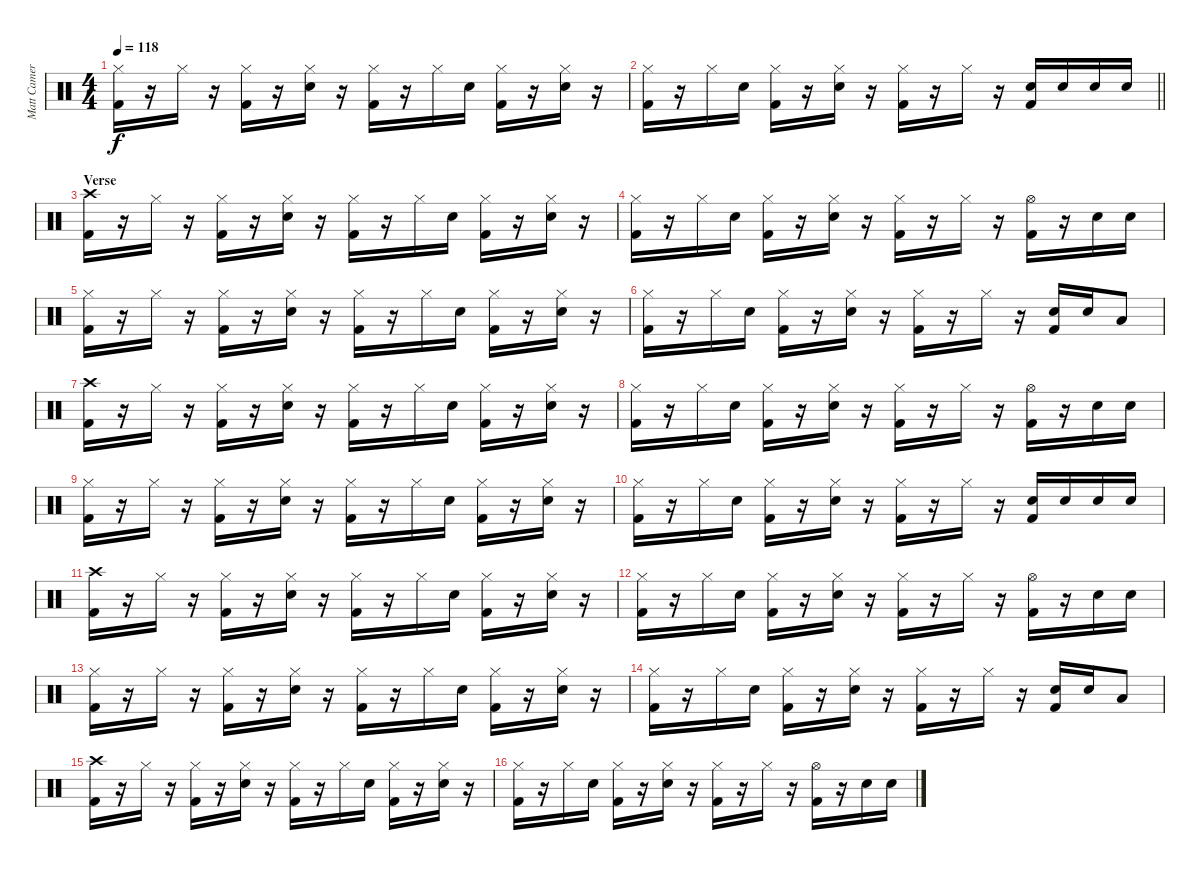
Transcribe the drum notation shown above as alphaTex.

\track ("Matt Cameron" "Matt Camer") {instrument percussion}
\staff {score}
\articulation defaults
\ts (4 4)
\tempo 118
\clef neutral
\ks c
("Hi-Hat (closed)" "Kick (hit) 2").16{dy f} r.16 "Hi-Hat (closed)".16 r.16 ("Hi-Hat (closed)" "Kick (hit) 2").16 r.16 ("Hi-Hat (closed)" "Snare (hit) 2").16 r.16 ("Hi-Hat (closed)" "Kick (hit) 2").16 r.16 "Hi-Hat (closed)".16 "Snare (hit) 2".16 ("Hi-Hat (closed)" "Kick (hit) 2").16 r.16 ("Hi-Hat (closed)" "Snare (hit) 2").16 r.16 |
\barLineRight lightlight
("Hi-Hat (closed)" "Kick (hit) 2").16 r.16 "Hi-Hat (closed)".16 "Snare (hit) 2".16 ("Hi-Hat (closed)" "Kick (hit) 2").16 r.16 ("Hi-Hat (closed)" "Snare (hit) 2").16 r.16 ("Hi-Hat (closed)" "Kick (hit) 2").16 r.16 "Hi-Hat (closed)".16 r.16 ("Snare (hit) 2" "Kick (hit) 2").16 "Snare (hit) 2".16 "Snare (hit) 2".16 "Snare (hit) 2".16 |
\section ("" "Verse")
("Crash high (hit)" "Kick (hit) 2").16 r.16 "Hi-Hat (closed)".16 r.16 ("Hi-Hat (closed)" "Kick (hit) 2").16 r.16 ("Hi-Hat (closed)" "Snare (hit) 2").16 r.16 ("Hi-Hat (closed)" "Kick (hit) 2").16 r.16 "Hi-Hat (closed)".16 "Snare (hit) 2".16 ("Hi-Hat (closed)" "Kick (hit) 2").16 r.16 ("Hi-Hat (closed)" "Snare (hit) 2").16 r.16 |
("Hi-Hat (closed)" "Kick (hit) 2").16 r.16 "Hi-Hat (closed)".16 "Snare (hit) 2".16 ("Hi-Hat (closed)" "Kick (hit) 2").16 r.16 ("Hi-Hat (closed)" "Snare (hit) 2").16 r.16 ("Hi-Hat (closed)" "Kick (hit) 2").16 r.16 "Hi-Hat (closed)".16 r.16 ("Hi-Hat (open)" "Kick (hit) 2").16 r.16 "Snare (hit) 2".16 "Snare (hit) 2".16 |
("Hi-Hat (closed)" "Kick (hit) 2").16 r.16 "Hi-Hat (closed)".16 r.16 ("Hi-Hat (closed)" "Kick (hit) 2").16 r.16 ("Hi-Hat (closed)" "Snare (hit) 2").16 r.16 ("Hi-Hat (closed)" "Kick (hit) 2").16 r.16 "Hi-Hat (closed)".16 "Snare (hit) 2".16 ("Hi-Hat (closed)" "Kick (hit) 2").16 r.16 ("Hi-Hat (closed)" "Snare (hit) 2").16 r.16 |
("Hi-Hat (closed)" "Kick (hit) 2").16 r.16 "Hi-Hat (closed)".16 "Snare (hit) 2".16 ("Hi-Hat (closed)" "Kick (hit) 2").16 r.16 ("Hi-Hat (closed)" "Snare (hit) 2").16 r.16 ("Hi-Hat (closed)" "Kick (hit) 2").16 r.16 "Hi-Hat (closed)".16 r.16 ("Snare (hit) 2" "Kick (hit) 2").16 "Snare (hit) 2".16 "Low Tom (hit)".8 |
("Crash high (hit)" "Kick (hit) 2").16 r.16 "Hi-Hat (closed)".16 r.16 ("Hi-Hat (closed)" "Kick (hit) 2").16 r.16 ("Hi-Hat (closed)" "Snare (hit) 2").16 r.16 ("Hi-Hat (closed)" "Kick (hit) 2").16 r.16 "Hi-Hat (closed)".16 "Snare (hit) 2".16 ("Hi-Hat (closed)" "Kick (hit) 2").16 r.16 ("Hi-Hat (closed)" "Snare (hit) 2").16 r.16 |
("Hi-Hat (closed)" "Kick (hit) 2").16 r.16 "Hi-Hat (closed)".16 "Snare (hit) 2".16 ("Hi-Hat (closed)" "Kick (hit) 2").16 r.16 ("Hi-Hat (closed)" "Snare (hit) 2").16 r.16 ("Hi-Hat (closed)" "Kick (hit) 2").16 r.16 "Hi-Hat (closed)".16 r.16 ("Hi-Hat (open)" "Kick (hit) 2").16 r.16 "Snare (hit) 2".16 "Snare (hit) 2".16 |
("Hi-Hat (closed)" "Kick (hit) 2").16 r.16 "Hi-Hat (closed)".16 r.16 ("Hi-Hat (closed)" "Kick (hit) 2").16 r.16 ("Hi-Hat (closed)" "Snare (hit) 2").16 r.16 ("Hi-Hat (closed)" "Kick (hit) 2").16 r.16 "Hi-Hat (closed)".16 "Snare (hit) 2".16 ("Hi-Hat (closed)" "Kick (hit) 2").16 r.16 ("Hi-Hat (closed)" "Snare (hit) 2").16 r.16 |
("Hi-Hat (closed)" "Kick (hit) 2").16 r.16 "Hi-Hat (closed)".16 "Snare (hit) 2".16 ("Hi-Hat (closed)" "Kick (hit) 2").16 r.16 ("Hi-Hat (closed)" "Snare (hit) 2").16 r.16 ("Hi-Hat (closed)" "Kick (hit) 2").16 r.16 "Hi-Hat (closed)".16 r.16 ("Snare (hit) 2" "Kick (hit) 2").16 "Snare (hit) 2".16 "Snare (hit) 2".16 "Snare (hit) 2".16 |
("Crash high (hit)" "Kick (hit) 2").16 r.16 "Hi-Hat (closed)".16 r.16 ("Hi-Hat (closed)" "Kick (hit) 2").16 r.16 ("Hi-Hat (closed)" "Snare (hit) 2").16 r.16 ("Hi-Hat (closed)" "Kick (hit) 2").16 r.16 "Hi-Hat (closed)".16 "Snare (hit) 2".16 ("Hi-Hat (closed)" "Kick (hit) 2").16 r.16 ("Hi-Hat (closed)" "Snare (hit) 2").16 r.16 |
("Hi-Hat (closed)" "Kick (hit) 2").16 r.16 "Hi-Hat (closed)".16 "Snare (hit) 2".16 ("Hi-Hat (closed)" "Kick (hit) 2").16 r.16 ("Hi-Hat (closed)" "Snare (hit) 2").16 r.16 ("Hi-Hat (closed)" "Kick (hit) 2").16 r.16 "Hi-Hat (closed)".16 r.16 ("Hi-Hat (open)" "Kick (hit) 2").16 r.16 "Snare (hit) 2".16 "Snare (hit) 2".16 |
("Hi-Hat (closed)" "Kick (hit) 2").16 r.16 "Hi-Hat (closed)".16 r.16 ("Hi-Hat (closed)" "Kick (hit) 2").16 r.16 ("Hi-Hat (closed)" "Snare (hit) 2").16 r.16 ("Hi-Hat (closed)" "Kick (hit) 2").16 r.16 "Hi-Hat (closed)".16 "Snare (hit) 2".16 ("Hi-Hat (closed)" "Kick (hit) 2").16 r.16 ("Hi-Hat (closed)" "Snare (hit) 2").16 r.16 |
("Hi-Hat (closed)" "Kick (hit) 2").16 r.16 "Hi-Hat (closed)".16 "Snare (hit) 2".16 ("Hi-Hat (closed)" "Kick (hit) 2").16 r.16 ("Hi-Hat (closed)" "Snare (hit) 2").16 r.16 ("Hi-Hat (closed)" "Kick (hit) 2").16 r.16 "Hi-Hat (closed)".16 r.16 ("Snare (hit) 2" "Kick (hit) 2").16 "Snare (hit) 2".16 "Low Tom (hit)".8 |
("Crash high (hit)" "Kick (hit) 2").16 r.16 "Hi-Hat (closed)".16 r.16 ("Hi-Hat (closed)" "Kick (hit) 2").16 r.16 ("Hi-Hat (closed)" "Snare (hit) 2").16 r.16 ("Hi-Hat (closed)" "Kick (hit) 2").16 r.16 "Hi-Hat (closed)".16 "Snare (hit) 2".16 ("Hi-Hat (closed)" "Kick (hit) 2").16 r.16 ("Hi-Hat (closed)" "Snare (hit) 2").16 r.16 |
("Hi-Hat (closed)" "Kick (hit) 2").16 r.16 "Hi-Hat (closed)".16 "Snare (hit) 2".16 ("Hi-Hat (closed)" "Kick (hit) 2").16 r.16 ("Hi-Hat (closed)" "Snare (hit) 2").16 r.16 ("Hi-Hat (closed)" "Kick (hit) 2").16 r.16 "Hi-Hat (closed)".16 r.16 ("Hi-Hat (open)" "Kick (hit) 2").16 r.16 "Snare (hit) 2".16 "Snare (hit) 2".16
